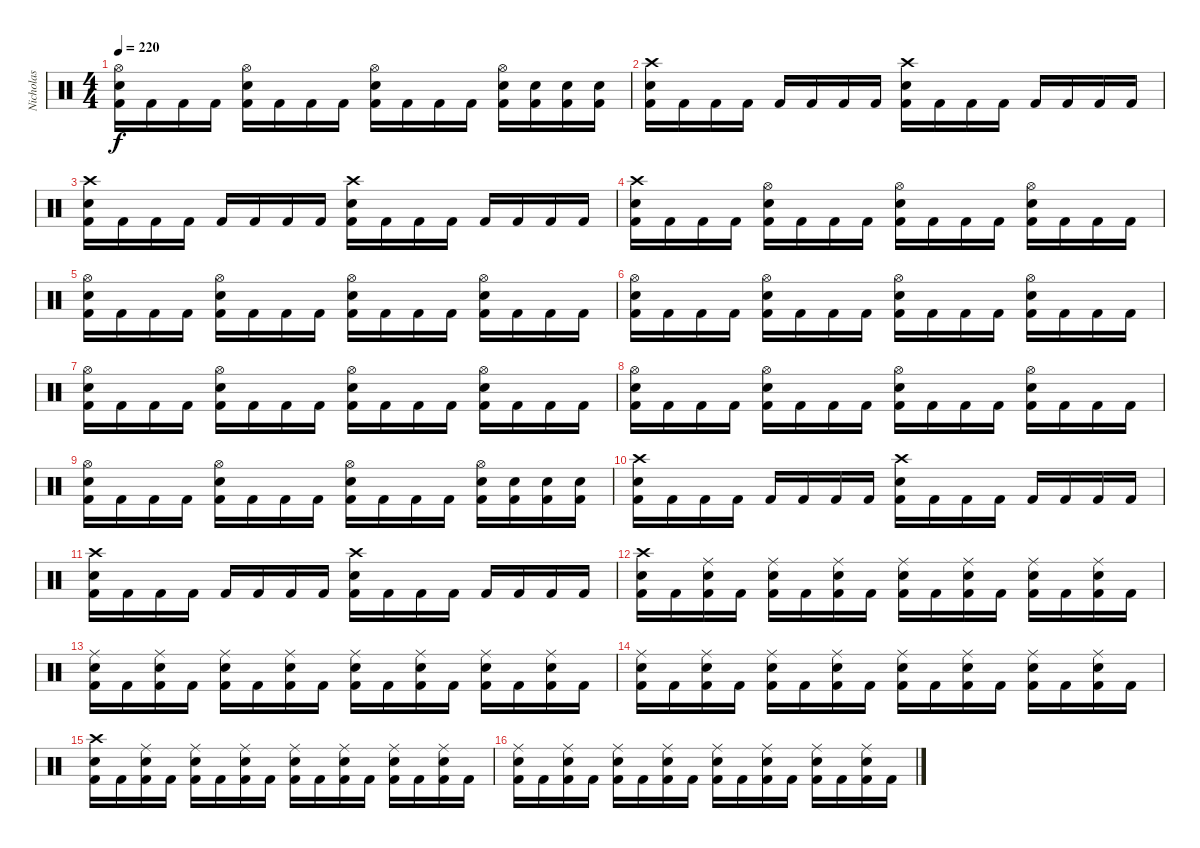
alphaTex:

\track ("Nicholas" "Nicholas") {instrument percussion}
\staff {score}
\articulation defaults
\ts (4 4)
\tempo 220
\clef neutral
\ks c
("Kick (hit) 2" "Snare (hit) 2" "Hi-Hat (open)").16{dy f} "Kick (hit) 2".16 "Kick (hit) 2".16 "Kick (hit) 2".16 ("Kick (hit) 2" "Snare (hit) 2" "Hi-Hat (open)").16 "Kick (hit) 2".16 "Kick (hit) 2".16 "Kick (hit) 2".16 ("Kick (hit) 2" "Snare (hit) 2" "Hi-Hat (open)").16 "Kick (hit) 2".16 "Kick (hit) 2".16 "Kick (hit) 2".16 ("Kick (hit) 2" "Snare (hit) 2" "Hi-Hat (open)").16 ("Kick (hit) 2" "Snare (hit) 2").16 ("Kick (hit) 2" "Snare (hit) 2").16 ("Kick (hit) 2" "Snare (hit) 2").16 |
("Kick (hit) 2" "Snare (hit) 2" "Crash high (hit)").16 "Kick (hit) 2".16 "Kick (hit) 2".16 "Kick (hit) 2".16 "Kick (hit) 2".16 "Kick (hit) 2".16 "Kick (hit) 2".16 "Kick (hit) 2".16 ("Kick (hit) 2" "Snare (hit) 2" "Crash high (hit)").16 "Kick (hit) 2".16 "Kick (hit) 2".16 "Kick (hit) 2".16 "Kick (hit) 2".16 "Kick (hit) 2".16 "Kick (hit) 2".16 "Kick (hit) 2".16 |
("Kick (hit) 2" "Snare (hit) 2" "Crash high (hit)").16 "Kick (hit) 2".16 "Kick (hit) 2".16 "Kick (hit) 2".16 "Kick (hit) 2".16 "Kick (hit) 2".16 "Kick (hit) 2".16 "Kick (hit) 2".16 ("Kick (hit) 2" "Snare (hit) 2" "Crash high (hit)").16 "Kick (hit) 2".16 "Kick (hit) 2".16 "Kick (hit) 2".16 "Kick (hit) 2".16 "Kick (hit) 2".16 "Kick (hit) 2".16 "Kick (hit) 2".16 |
("Kick (hit) 2" "Snare (hit) 2" "Crash high (hit)").16 "Kick (hit) 2".16 "Kick (hit) 2".16 "Kick (hit) 2".16 ("Kick (hit) 2" "Snare (hit) 2" "Hi-Hat (open)").16 "Kick (hit) 2".16 "Kick (hit) 2".16 "Kick (hit) 2".16 ("Kick (hit) 2" "Snare (hit) 2" "Hi-Hat (open)").16 "Kick (hit) 2".16 "Kick (hit) 2".16 "Kick (hit) 2".16 ("Kick (hit) 2" "Snare (hit) 2" "Hi-Hat (open)").16 "Kick (hit) 2".16 "Kick (hit) 2".16 "Kick (hit) 2".16 |
("Kick (hit) 2" "Snare (hit) 2" "Hi-Hat (open)").16 "Kick (hit) 2".16 "Kick (hit) 2".16 "Kick (hit) 2".16 ("Kick (hit) 2" "Snare (hit) 2" "Hi-Hat (open)").16 "Kick (hit) 2".16 "Kick (hit) 2".16 "Kick (hit) 2".16 ("Kick (hit) 2" "Snare (hit) 2" "Hi-Hat (open)").16 "Kick (hit) 2".16 "Kick (hit) 2".16 "Kick (hit) 2".16 ("Kick (hit) 2" "Snare (hit) 2" "Hi-Hat (open)").16 "Kick (hit) 2".16 "Kick (hit) 2".16 "Kick (hit) 2".16 |
("Kick (hit) 2" "Snare (hit) 2" "Hi-Hat (open)").16 "Kick (hit) 2".16 "Kick (hit) 2".16 "Kick (hit) 2".16 ("Kick (hit) 2" "Snare (hit) 2" "Hi-Hat (open)").16 "Kick (hit) 2".16 "Kick (hit) 2".16 "Kick (hit) 2".16 ("Kick (hit) 2" "Snare (hit) 2" "Hi-Hat (open)").16 "Kick (hit) 2".16 "Kick (hit) 2".16 "Kick (hit) 2".16 ("Kick (hit) 2" "Snare (hit) 2" "Hi-Hat (open)").16 "Kick (hit) 2".16 "Kick (hit) 2".16 "Kick (hit) 2".16 |
("Kick (hit) 2" "Snare (hit) 2" "Hi-Hat (open)").16 "Kick (hit) 2".16 "Kick (hit) 2".16 "Kick (hit) 2".16 ("Kick (hit) 2" "Snare (hit) 2" "Hi-Hat (open)").16 "Kick (hit) 2".16 "Kick (hit) 2".16 "Kick (hit) 2".16 ("Kick (hit) 2" "Snare (hit) 2" "Hi-Hat (open)").16 "Kick (hit) 2".16 "Kick (hit) 2".16 "Kick (hit) 2".16 ("Kick (hit) 2" "Snare (hit) 2" "Hi-Hat (open)").16 "Kick (hit) 2".16 "Kick (hit) 2".16 "Kick (hit) 2".16 |
("Kick (hit) 2" "Snare (hit) 2" "Hi-Hat (open)").16 "Kick (hit) 2".16 "Kick (hit) 2".16 "Kick (hit) 2".16 ("Kick (hit) 2" "Snare (hit) 2" "Hi-Hat (open)").16 "Kick (hit) 2".16 "Kick (hit) 2".16 "Kick (hit) 2".16 ("Kick (hit) 2" "Snare (hit) 2" "Hi-Hat (open)").16 "Kick (hit) 2".16 "Kick (hit) 2".16 "Kick (hit) 2".16 ("Kick (hit) 2" "Snare (hit) 2" "Hi-Hat (open)").16 "Kick (hit) 2".16 "Kick (hit) 2".16 "Kick (hit) 2".16 |
("Kick (hit) 2" "Snare (hit) 2" "Hi-Hat (open)").16 "Kick (hit) 2".16 "Kick (hit) 2".16 "Kick (hit) 2".16 ("Kick (hit) 2" "Snare (hit) 2" "Hi-Hat (open)").16 "Kick (hit) 2".16 "Kick (hit) 2".16 "Kick (hit) 2".16 ("Kick (hit) 2" "Snare (hit) 2" "Hi-Hat (open)").16 "Kick (hit) 2".16 "Kick (hit) 2".16 "Kick (hit) 2".16 ("Kick (hit) 2" "Snare (hit) 2" "Hi-Hat (open)").16 ("Kick (hit) 2" "Snare (hit) 2").16 ("Kick (hit) 2" "Snare (hit) 2").16 ("Kick (hit) 2" "Snare (hit) 2").16 |
("Kick (hit) 2" "Snare (hit) 2" "Crash high (hit)").16 "Kick (hit) 2".16 "Kick (hit) 2".16 "Kick (hit) 2".16 "Kick (hit) 2".16 "Kick (hit) 2".16 "Kick (hit) 2".16 "Kick (hit) 2".16 ("Kick (hit) 2" "Snare (hit) 2" "Crash high (hit)").16 "Kick (hit) 2".16 "Kick (hit) 2".16 "Kick (hit) 2".16 "Kick (hit) 2".16 "Kick (hit) 2".16 "Kick (hit) 2".16 "Kick (hit) 2".16 |
("Kick (hit) 2" "Snare (hit) 2" "Crash high (hit)").16 "Kick (hit) 2".16 "Kick (hit) 2".16 "Kick (hit) 2".16 "Kick (hit) 2".16 "Kick (hit) 2".16 "Kick (hit) 2".16 "Kick (hit) 2".16 ("Kick (hit) 2" "Snare (hit) 2" "Crash high (hit)").16 "Kick (hit) 2".16 "Kick (hit) 2".16 "Kick (hit) 2".16 "Kick (hit) 2".16 "Kick (hit) 2".16 "Kick (hit) 2".16 "Kick (hit) 2".16 |
("Kick (hit) 2" "Snare (hit) 2" "Crash high (hit)").16 "Kick (hit) 2".16 ("Kick (hit) 2" "Snare (hit) 2" "Ride (middle)").16 "Kick (hit) 2".16 ("Kick (hit) 2" "Snare (hit) 2" "Ride (middle)").16 "Kick (hit) 2".16 ("Kick (hit) 2" "Snare (hit) 2" "Ride (middle)").16 "Kick (hit) 2".16 ("Kick (hit) 2" "Snare (hit) 2" "Ride (middle)").16 "Kick (hit) 2".16 ("Kick (hit) 2" "Snare (hit) 2" "Ride (middle)").16 "Kick (hit) 2".16 ("Kick (hit) 2" "Snare (hit) 2" "Ride (middle)").16 "Kick (hit) 2".16 ("Kick (hit) 2" "Snare (hit) 2" "Ride (middle)").16 "Kick (hit) 2".16 |
("Kick (hit) 2" "Snare (hit) 2" "Ride (middle)").16 "Kick (hit) 2".16 ("Kick (hit) 2" "Snare (hit) 2" "Ride (middle)").16 "Kick (hit) 2".16 ("Kick (hit) 2" "Snare (hit) 2" "Ride (middle)").16 "Kick (hit) 2".16 ("Kick (hit) 2" "Snare (hit) 2" "Ride (middle)").16 "Kick (hit) 2".16 ("Kick (hit) 2" "Snare (hit) 2" "Ride (middle)").16 "Kick (hit) 2".16 ("Kick (hit) 2" "Snare (hit) 2" "Ride (middle)").16 "Kick (hit) 2".16 ("Kick (hit) 2" "Snare (hit) 2" "Ride (middle)").16 "Kick (hit) 2".16 ("Kick (hit) 2" "Snare (hit) 2" "Ride (middle)").16 "Kick (hit) 2".16 |
("Kick (hit) 2" "Snare (hit) 2" "Ride (middle)").16 "Kick (hit) 2".16 ("Kick (hit) 2" "Snare (hit) 2" "Ride (middle)").16 "Kick (hit) 2".16 ("Kick (hit) 2" "Snare (hit) 2" "Ride (middle)").16 "Kick (hit) 2".16 ("Kick (hit) 2" "Snare (hit) 2" "Ride (middle)").16 "Kick (hit) 2".16 ("Kick (hit) 2" "Snare (hit) 2" "Ride (middle)").16 "Kick (hit) 2".16 ("Kick (hit) 2" "Snare (hit) 2" "Ride (middle)").16 "Kick (hit) 2".16 ("Kick (hit) 2" "Snare (hit) 2" "Ride (middle)").16 "Kick (hit) 2".16 ("Kick (hit) 2" "Snare (hit) 2" "Ride (middle)").16 "Kick (hit) 2".16 |
("Kick (hit) 2" "Snare (hit) 2" "Crash high (hit)").16 "Kick (hit) 2".16 ("Kick (hit) 2" "Snare (hit) 2" "Ride (middle)").16 "Kick (hit) 2".16 ("Kick (hit) 2" "Snare (hit) 2" "Ride (middle)").16 "Kick (hit) 2".16 ("Kick (hit) 2" "Snare (hit) 2" "Ride (middle)").16 "Kick (hit) 2".16 ("Kick (hit) 2" "Snare (hit) 2" "Ride (middle)").16 "Kick (hit) 2".16 ("Kick (hit) 2" "Snare (hit) 2" "Ride (middle)").16 "Kick (hit) 2".16 ("Kick (hit) 2" "Snare (hit) 2" "Ride (middle)").16 "Kick (hit) 2".16 ("Kick (hit) 2" "Snare (hit) 2" "Ride (middle)").16 "Kick (hit) 2".16 |
("Kick (hit) 2" "Snare (hit) 2" "Ride (middle)").16 "Kick (hit) 2".16 ("Kick (hit) 2" "Snare (hit) 2" "Ride (middle)").16 "Kick (hit) 2".16 ("Kick (hit) 2" "Snare (hit) 2" "Ride (middle)").16 "Kick (hit) 2".16 ("Kick (hit) 2" "Snare (hit) 2" "Ride (middle)").16 "Kick (hit) 2".16 ("Kick (hit) 2" "Snare (hit) 2" "Ride (middle)").16 "Kick (hit) 2".16 ("Kick (hit) 2" "Snare (hit) 2" "Ride (middle)").16 "Kick (hit) 2".16 ("Kick (hit) 2" "Snare (hit) 2" "Ride (middle)").16 "Kick (hit) 2".16 ("Kick (hit) 2" "Snare (hit) 2" "Ride (middle)").16 "Kick (hit) 2".16
